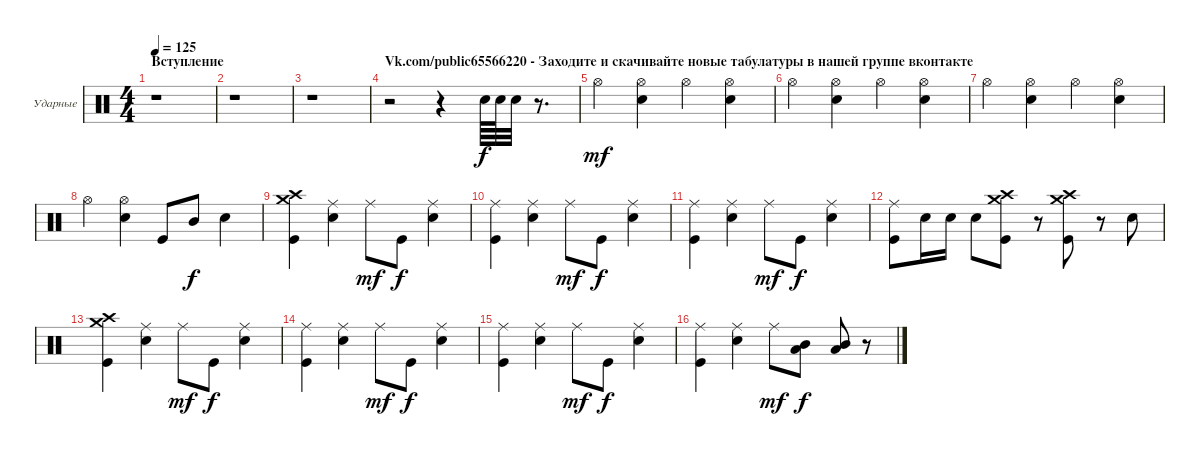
\bracketExtendMode groupsimilarinstruments
\firstSystemTrackNameOrientation horizontal
\otherSystemsTrackNameOrientation horizontal
\track ("Максим Удалов" "Ударные") {instrument percussion}
\staff {score}
\articulation defaults
\ts (4 4)
\section ("" "Вступление")
\tempo 125
\clef neutral
\ks c
r.1{dy f} |
r.1 |
r.1 |
\section ("" "Vk.com/public65566220 - Заходите и скачивайте новые табулатуры в нашей группе вконтакте")
r.2 r.4 "Snare (hit) 2".64 "Snare (hit) 2".64 "Snare (hit) 2".32 r.8{d} |
"Hi-Hat (open)".4{dy mf} ("Hi-Hat (open)" "Snare (hit) 2").4 "Hi-Hat (open)".4 ("Hi-Hat (open)" "Snare (hit) 2").4 |
"Hi-Hat (open)".4 ("Hi-Hat (open)" "Snare (hit) 2").4 "Hi-Hat (open)".4 ("Hi-Hat (open)" "Snare (hit) 2").4 |
"Hi-Hat (open)".4 ("Hi-Hat (open)" "Snare (hit) 2").4 "Hi-Hat (open)".4 ("Hi-Hat (open)" "Snare (hit) 2").4 |
"Hi-Hat (open)".4 ("Hi-Hat (open)" "Snare (hit) 2").4 "Kick (hit)".8 "Mid Tom (hit)".8{dy f} "Snare (hit) 2".4 |
("Kick (hit)" "Crash medium (hit)" "Crash high (hit)").4 ("Snare (hit) 2" "Ride (middle)").4 "Ride (middle)".8{dy mf} "Kick (hit)".8{dy f} ("Snare (hit) 2" "Ride (middle)").4 |
("Kick (hit)" "Ride (middle)").4 ("Snare (hit) 2" "Ride (middle)").4 "Ride (middle)".8{dy mf} "Kick (hit)".8{dy f} ("Snare (hit) 2" "Ride (middle)").4 |
("Kick (hit)" "Ride (middle)").4 ("Snare (hit) 2" "Ride (middle)").4 "Ride (middle)".8{dy mf} "Kick (hit)".8{dy f} ("Snare (hit) 2" "Ride (middle)").4 |
("Kick (hit)" "Ride (middle)").8 "Snare (hit) 2".16 "Snare (hit) 2".16 "Snare (hit) 2".8 ("Kick (hit)" "Crash medium (hit)" "Crash high (hit)").8 r.8 ("Kick (hit)" "Crash medium (hit)" "Crash high (hit)").8 r.8 "Snare (hit) 2".8 |
("Kick (hit)" "Crash medium (hit)" "Crash high (hit)").4 ("Snare (hit) 2" "Ride (middle)").4 "Ride (middle)".8{dy mf} "Kick (hit)".8{dy f} ("Snare (hit) 2" "Ride (middle)").4 |
("Kick (hit)" "Ride (middle)").4 ("Snare (hit) 2" "Ride (middle)").4 "Ride (middle)".8{dy mf} "Kick (hit)".8{dy f} ("Snare (hit) 2" "Ride (middle)").4 |
("Kick (hit)" "Ride (middle)").4 ("Snare (hit) 2" "Ride (middle)").4 "Ride (middle)".8{dy mf} "Kick (hit)".8{dy f} ("Snare (hit) 2" "Ride (middle)").4 |
("Kick (hit)" "Ride (middle)").4 ("Snare (hit) 2" "Ride (middle)").4 "Ride (middle)".8{dy mf} ("Mid Tom (hit)" "Low Tom (hit)").8{dy f} ("Mid Tom (hit)" "Low Tom (hit)").8 r.8
